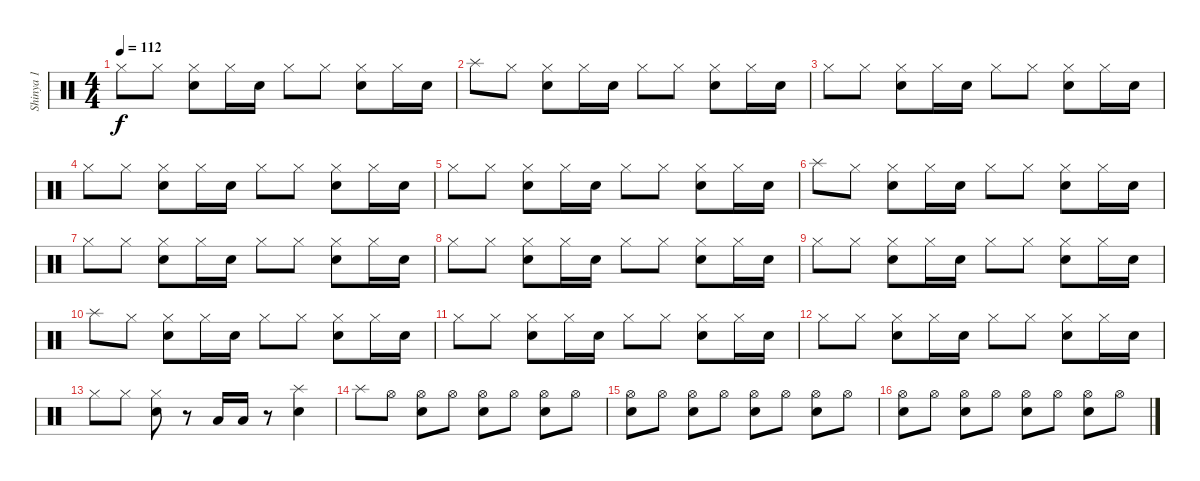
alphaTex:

\track ("Shinya 1" "Shinya 1") {instrument percussion}
\staff {score}
\articulation defaults
\ts (4 4)
\tempo 112
\clef neutral
\ks c "Hi-Hat (closed)".8{dy f} "Hi-Hat (closed)".8
("Hi-Hat (closed)" "Snare (hit) 2").8 "Hi-Hat (closed)".16 "Snare (hit) 2".16 "Hi-Hat (closed)".8 "Hi-Hat (closed)".8 ("Hi-Hat (closed)" "Snare (hit) 2").8 "Hi-Hat (closed)".16 "Snare (hit) 2".16 |
"Splash (hit)".8 "Hi-Hat (closed)".8 ("Hi-Hat (closed)" "Snare (hit) 2").8 "Hi-Hat (closed)".16 "Snare (hit) 2".16 "Hi-Hat (closed)".8 "Hi-Hat (closed)".8 ("Hi-Hat (closed)" "Snare (hit) 2").8 "Hi-Hat (closed)".16 "Snare (hit) 2".16 |
"Hi-Hat (closed)".8 "Hi-Hat (closed)".8 ("Hi-Hat (closed)" "Snare (hit) 2").8 "Hi-Hat (closed)".16 "Snare (hit) 2".16 "Hi-Hat (closed)".8 "Hi-Hat (closed)".8 ("Hi-Hat (closed)" "Snare (hit) 2").8 "Hi-Hat (closed)".16 "Snare (hit) 2".16 |
"Hi-Hat (closed)".8 "Hi-Hat (closed)".8 ("Hi-Hat (closed)" "Snare (hit) 2").8 "Hi-Hat (closed)".16 "Snare (hit) 2".16 "Hi-Hat (closed)".8 "Hi-Hat (closed)".8 ("Hi-Hat (closed)" "Snare (hit) 2").8 "Hi-Hat (closed)".16 "Snare (hit) 2".16 |
"Hi-Hat (closed)".8 "Hi-Hat (closed)".8 ("Hi-Hat (closed)" "Snare (hit) 2").8 "Hi-Hat (closed)".16 "Snare (hit) 2".16 "Hi-Hat (closed)".8 "Hi-Hat (closed)".8 ("Hi-Hat (closed)" "Snare (hit) 2").8 "Hi-Hat (closed)".16 "Snare (hit) 2".16 |
"Splash (hit)".8 "Hi-Hat (closed)".8 ("Hi-Hat (closed)" "Snare (hit) 2").8 "Hi-Hat (closed)".16 "Snare (hit) 2".16 "Hi-Hat (closed)".8 "Hi-Hat (closed)".8 ("Hi-Hat (closed)" "Snare (hit) 2").8 "Hi-Hat (closed)".16 "Snare (hit) 2".16 |
"Hi-Hat (closed)".8 "Hi-Hat (closed)".8 ("Hi-Hat (closed)" "Snare (hit) 2").8 "Hi-Hat (closed)".16 "Snare (hit) 2".16 "Hi-Hat (closed)".8 "Hi-Hat (closed)".8 ("Hi-Hat (closed)" "Snare (hit) 2").8 "Hi-Hat (closed)".16 "Snare (hit) 2".16 |
"Hi-Hat (closed)".8 "Hi-Hat (closed)".8 ("Hi-Hat (closed)" "Snare (hit) 2").8 "Hi-Hat (closed)".16 "Snare (hit) 2".16 "Hi-Hat (closed)".8 "Hi-Hat (closed)".8 ("Hi-Hat (closed)" "Snare (hit) 2").8 "Hi-Hat (closed)".16 "Snare (hit) 2".16 |
"Hi-Hat (closed)".8 "Hi-Hat (closed)".8 ("Hi-Hat (closed)" "Snare (hit) 2").8 "Hi-Hat (closed)".16 "Snare (hit) 2".16 "Hi-Hat (closed)".8 "Hi-Hat (closed)".8 ("Hi-Hat (closed)" "Snare (hit) 2").8 "Hi-Hat (closed)".16 "Snare (hit) 2".16 |
"Splash (hit)".8 "Hi-Hat (closed)".8 ("Hi-Hat (closed)" "Snare (hit) 2").8 "Hi-Hat (closed)".16 "Snare (hit) 2".16 "Hi-Hat (closed)".8 "Hi-Hat (closed)".8 ("Hi-Hat (closed)" "Snare (hit) 2").8 "Hi-Hat (closed)".16 "Snare (hit) 2".16 |
"Hi-Hat (closed)".8 "Hi-Hat (closed)".8 ("Hi-Hat (closed)" "Snare (hit) 2").8 "Hi-Hat (closed)".16 "Snare (hit) 2".16 "Hi-Hat (closed)".8 "Hi-Hat (closed)".8 ("Hi-Hat (closed)" "Snare (hit) 2").8 "Hi-Hat (closed)".16 "Snare (hit) 2".16 |
"Hi-Hat (closed)".8 "Hi-Hat (closed)".8 ("Hi-Hat (closed)" "Snare (hit) 2").8 "Hi-Hat (closed)".16 "Snare (hit) 2".16 "Hi-Hat (closed)".8 "Hi-Hat (closed)".8 ("Hi-Hat (closed)" "Snare (hit) 2").8 "Hi-Hat (closed)".16 "Snare (hit) 2".16 |
"Hi-Hat (closed)".8 "Hi-Hat (closed)".8 ("Hi-Hat (closed)" "Snare (hit) 2").8 r.8 "Low Tom (hit)".16 "Low Tom (hit)".16 r.8 ("Splash (hit)" "Snare (hit) 2").4 |
"Splash (hit)".8 "Hi-Hat (open)".8 ("Hi-Hat (open)" "Snare (hit) 2").8 "Hi-Hat (open)".8 ("Hi-Hat (open)" "Snare (hit) 2").8 "Hi-Hat (open)".8 ("Hi-Hat (open)" "Snare (hit) 2").8 "Hi-Hat (open)".8 |
("Hi-Hat (open)" "Snare (hit) 2").8 "Hi-Hat (open)".8 ("Hi-Hat (open)" "Snare (hit) 2").8 "Hi-Hat (open)".8 ("Hi-Hat (open)" "Snare (hit) 2").8 "Hi-Hat (open)".8 ("Hi-Hat (open)" "Snare (hit) 2").8 "Hi-Hat (open)".8 |
("Hi-Hat (open)" "Snare (hit) 2").8 "Hi-Hat (open)".8 ("Hi-Hat (open)" "Snare (hit) 2").8 "Hi-Hat (open)".8 ("Hi-Hat (open)" "Snare (hit) 2").8 "Hi-Hat (open)".8 ("Hi-Hat (open)" "Snare (hit) 2").8 "Hi-Hat (open)".8
